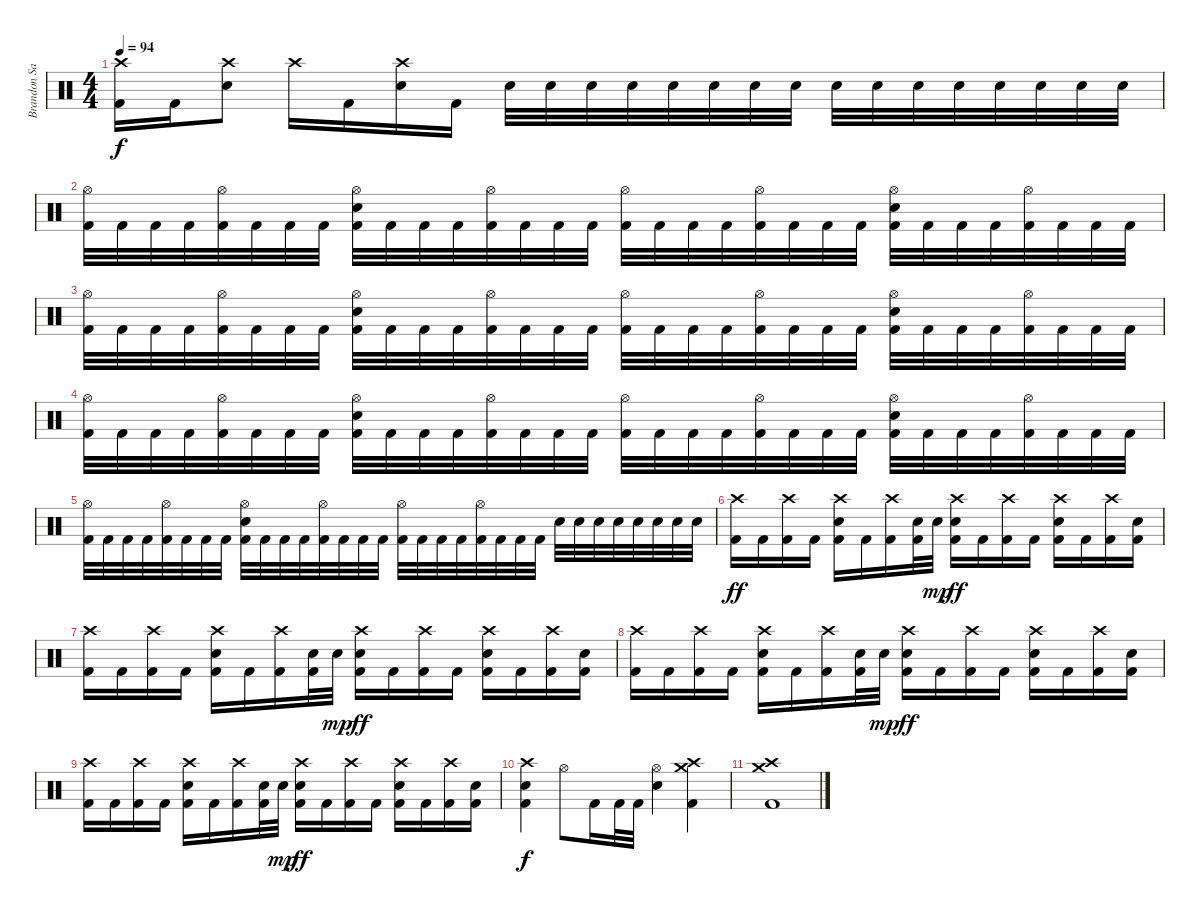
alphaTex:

\track ("Brandon Saller  (drums)" "Brandon Sa") {instrument percussion}
\staff {score}
\articulation defaults
\ts (4 4)
\tempo 94
\clef neutral
\ks c
("Crash high (hit)" "Kick (hit) 2").16{dy f} "Kick (hit) 2".16 ("Crash high (hit)" "Electric Snare (hit)").8 "Crash high (hit)".16 "Kick (hit) 2".16 ("Crash high (hit)" "Electric Snare (hit)").16 "Kick (hit) 2".16 "Electric Snare (hit)".32 "Electric Snare (hit)".32 "Electric Snare (hit)".32 "Electric Snare (hit)".32 "Electric Snare (hit)".32 "Electric Snare (hit)".32 "Electric Snare (hit)".32 "Electric Snare (hit)".32 "Electric Snare (hit)".32 "Electric Snare (hit)".32 "Electric Snare (hit)".32 "Electric Snare (hit)".32 "Electric Snare (hit)".32 "Electric Snare (hit)".32 "Electric Snare (hit)".32 "Electric Snare (hit)".32 |
("Hi-Hat (open)" "Kick (hit) 2").32 "Kick (hit) 2".32 "Kick (hit) 2".32 "Kick (hit) 2".32 ("Hi-Hat (open)" "Kick (hit) 2").32 "Kick (hit) 2".32 "Kick (hit) 2".32 "Kick (hit) 2".32 ("Hi-Hat (open)" "Electric Snare (hit)" "Kick (hit) 2").32 "Kick (hit) 2".32 "Kick (hit) 2".32 "Kick (hit) 2".32 ("Hi-Hat (open)" "Kick (hit) 2").32 "Kick (hit) 2".32 "Kick (hit) 2".32 "Kick (hit) 2".32 ("Hi-Hat (open)" "Kick (hit) 2").32 "Kick (hit) 2".32 "Kick (hit) 2".32 "Kick (hit) 2".32 ("Hi-Hat (open)" "Kick (hit) 2").32 "Kick (hit) 2".32 "Kick (hit) 2".32 "Kick (hit) 2".32 ("Hi-Hat (open)" "Electric Snare (hit)" "Kick (hit) 2").32 "Kick (hit) 2".32 "Kick (hit) 2".32 "Kick (hit) 2".32 ("Hi-Hat (open)" "Kick (hit) 2").32 "Kick (hit) 2".32 "Kick (hit) 2".32 "Kick (hit) 2".32 |
("Hi-Hat (open)" "Kick (hit) 2").32 "Kick (hit) 2".32 "Kick (hit) 2".32 "Kick (hit) 2".32 ("Hi-Hat (open)" "Kick (hit) 2").32 "Kick (hit) 2".32 "Kick (hit) 2".32 "Kick (hit) 2".32 ("Hi-Hat (open)" "Electric Snare (hit)" "Kick (hit) 2").32 "Kick (hit) 2".32 "Kick (hit) 2".32 "Kick (hit) 2".32 ("Hi-Hat (open)" "Kick (hit) 2").32 "Kick (hit) 2".32 "Kick (hit) 2".32 "Kick (hit) 2".32 ("Hi-Hat (open)" "Kick (hit) 2").32 "Kick (hit) 2".32 "Kick (hit) 2".32 "Kick (hit) 2".32 ("Hi-Hat (open)" "Kick (hit) 2").32 "Kick (hit) 2".32 "Kick (hit) 2".32 "Kick (hit) 2".32 ("Hi-Hat (open)" "Electric Snare (hit)" "Kick (hit) 2").32 "Kick (hit) 2".32 "Kick (hit) 2".32 "Kick (hit) 2".32 ("Hi-Hat (open)" "Kick (hit) 2").32 "Kick (hit) 2".32 "Kick (hit) 2".32 "Kick (hit) 2".32 |
("Hi-Hat (open)" "Kick (hit) 2").32 "Kick (hit) 2".32 "Kick (hit) 2".32 "Kick (hit) 2".32 ("Hi-Hat (open)" "Kick (hit) 2").32 "Kick (hit) 2".32 "Kick (hit) 2".32 "Kick (hit) 2".32 ("Hi-Hat (open)" "Electric Snare (hit)" "Kick (hit) 2").32 "Kick (hit) 2".32 "Kick (hit) 2".32 "Kick (hit) 2".32 ("Hi-Hat (open)" "Kick (hit) 2").32 "Kick (hit) 2".32 "Kick (hit) 2".32 "Kick (hit) 2".32 ("Hi-Hat (open)" "Kick (hit) 2").32 "Kick (hit) 2".32 "Kick (hit) 2".32 "Kick (hit) 2".32 ("Hi-Hat (open)" "Kick (hit) 2").32 "Kick (hit) 2".32 "Kick (hit) 2".32 "Kick (hit) 2".32 ("Hi-Hat (open)" "Electric Snare (hit)" "Kick (hit) 2").32 "Kick (hit) 2".32 "Kick (hit) 2".32 "Kick (hit) 2".32 ("Hi-Hat (open)" "Kick (hit) 2").32 "Kick (hit) 2".32 "Kick (hit) 2".32 "Kick (hit) 2".32 |
("Hi-Hat (open)" "Kick (hit) 2").32 "Kick (hit) 2".32 "Kick (hit) 2".32 "Kick (hit) 2".32 ("Hi-Hat (open)" "Kick (hit) 2").32 "Kick (hit) 2".32 "Kick (hit) 2".32 "Kick (hit) 2".32 ("Hi-Hat (open)" "Electric Snare (hit)" "Kick (hit) 2").32 "Kick (hit) 2".32 "Kick (hit) 2".32 "Kick (hit) 2".32 ("Hi-Hat (open)" "Kick (hit) 2").32 "Kick (hit) 2".32 "Kick (hit) 2".32 "Kick (hit) 2".32 ("Hi-Hat (open)" "Kick (hit) 2").32 "Kick (hit) 2".32 "Kick (hit) 2".32 "Kick (hit) 2".32 ("Hi-Hat (open)" "Kick (hit) 2").32 "Kick (hit) 2".32 "Kick (hit) 2".32 "Kick (hit) 2".32 "Electric Snare (hit)".32 "Electric Snare (hit)".32 "Electric Snare (hit)".32 "Electric Snare (hit)".32 "Electric Snare (hit)".32 "Electric Snare (hit)".32 "Electric Snare (hit)".32 "Electric Snare (hit)".32 |
("Crash high (hit)" "Kick (hit) 2").16{dy ff} "Kick (hit) 2".16 ("Crash high (hit)" "Kick (hit) 2").16 "Kick (hit) 2".16 ("Crash high (hit)" "Electric Snare (hit)" "Kick (hit) 2").16 "Kick (hit) 2".16 ("Crash high (hit)" "Kick (hit) 2").16 ("Electric Snare (hit)" "Kick (hit) 2").32 "Electric Snare (hit)".32{dy mp} ("Crash high (hit)" "Electric Snare (hit)" "Kick (hit) 2").16{dy ff} "Kick (hit) 2".16 ("Crash high (hit)" "Kick (hit) 2").16 "Kick (hit) 2".16 ("Crash high (hit)" "Electric Snare (hit)" "Kick (hit) 2").16 "Kick (hit) 2".16 ("Crash high (hit)" "Kick (hit) 2").16 ("Electric Snare (hit)" "Kick (hit) 2").16 |
("Crash high (hit)" "Kick (hit) 2").16 "Kick (hit) 2".16 ("Crash high (hit)" "Kick (hit) 2").16 "Kick (hit) 2".16 ("Crash high (hit)" "Electric Snare (hit)" "Kick (hit) 2").16 "Kick (hit) 2".16 ("Crash high (hit)" "Kick (hit) 2").16 ("Electric Snare (hit)" "Kick (hit) 2").32 "Electric Snare (hit)".32{dy mp} ("Crash high (hit)" "Electric Snare (hit)" "Kick (hit) 2").16{dy ff} "Kick (hit) 2".16 ("Crash high (hit)" "Kick (hit) 2").16 "Kick (hit) 2".16 ("Crash high (hit)" "Electric Snare (hit)" "Kick (hit) 2").16 "Kick (hit) 2".16 ("Crash high (hit)" "Kick (hit) 2").16 ("Electric Snare (hit)" "Kick (hit) 2").16 |
("Crash high (hit)" "Kick (hit) 2").16 "Kick (hit) 2".16 ("Crash high (hit)" "Kick (hit) 2").16 "Kick (hit) 2".16 ("Crash high (hit)" "Electric Snare (hit)" "Kick (hit) 2").16 "Kick (hit) 2".16 ("Crash high (hit)" "Kick (hit) 2").16 ("Electric Snare (hit)" "Kick (hit) 2").32 "Electric Snare (hit)".32{dy mp} ("Crash high (hit)" "Electric Snare (hit)" "Kick (hit) 2").16{dy ff} "Kick (hit) 2".16 ("Crash high (hit)" "Kick (hit) 2").16 "Kick (hit) 2".16 ("Crash high (hit)" "Electric Snare (hit)" "Kick (hit) 2").16 "Kick (hit) 2".16 ("Crash high (hit)" "Kick (hit) 2").16 ("Electric Snare (hit)" "Kick (hit) 2").16 |
("Crash high (hit)" "Kick (hit) 2").16 "Kick (hit) 2".16 ("Crash high (hit)" "Kick (hit) 2").16 "Kick (hit) 2".16 ("Crash high (hit)" "Electric Snare (hit)" "Kick (hit) 2").16 "Kick (hit) 2".16 ("Crash high (hit)" "Kick (hit) 2").16 ("Electric Snare (hit)" "Kick (hit) 2").32 "Electric Snare (hit)".32{dy mp} ("Crash high (hit)" "Electric Snare (hit)" "Kick (hit) 2").16{dy ff} "Kick (hit) 2".16 ("Crash high (hit)" "Kick (hit) 2").16 "Kick (hit) 2".16 ("Crash high (hit)" "Electric Snare (hit)" "Kick (hit) 2").16 "Kick (hit) 2".16 ("Crash high (hit)" "Kick (hit) 2").16 ("Electric Snare (hit)" "Kick (hit) 2").16 |
("Crash high (hit)" "Electric Snare (hit)" "Kick (hit) 2").4{dy f} "Hi-Hat (open)".8 "Kick (hit) 2".16 "Kick (hit) 2".32 "Kick (hit) 2".32 ("Hi-Hat (open)" "Electric Snare (hit)").4 ("Crash medium (hit)" "Crash high (hit)" "Kick (hit) 2").4 |
("Crash medium (hit)" "Crash high (hit)" "Kick (hit) 2").1
